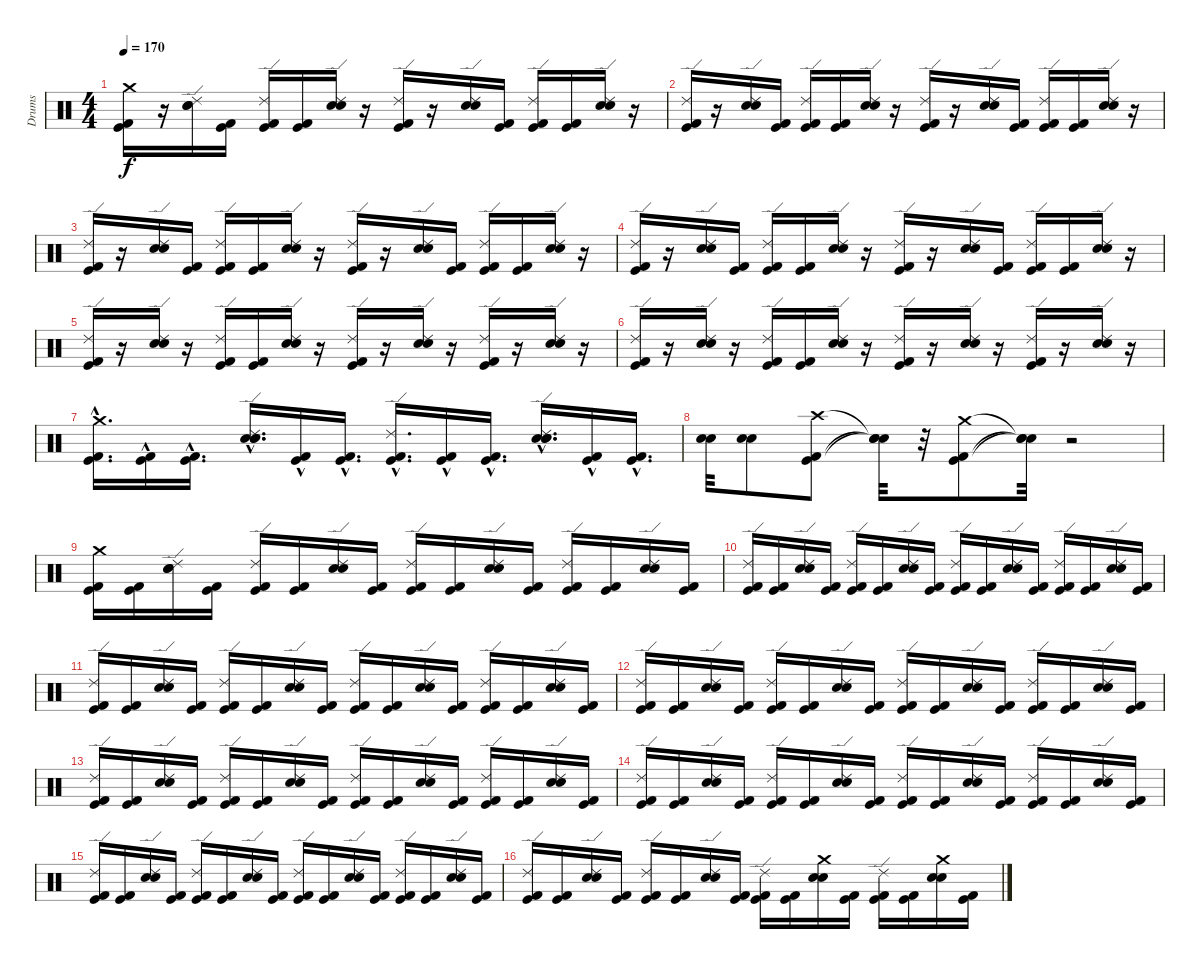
\track ("Drums" "Drums") {instrument percussion}
\staff {score}
\articulation defaults
\ts (4 4)
\tempo 170
\clef neutral
\ks c
("Crash medium (hit)" "Kick (hit) 2" "Kick (hit)").16{dy f} r.16 ("Ride (edge) 2" "Electric Snare (hit)" "Snare (hit) 2").16 ("Kick (hit) 2" "Kick (hit)").16 ("Ride (edge) 2" "Kick (hit) 2" "Kick (hit)").16 ("Kick (hit) 2" "Kick (hit)").16 ("Ride (edge) 2" "Electric Snare (hit)" "Snare (hit) 2").16 r.16 ("Ride (edge) 2" "Kick (hit) 2" "Kick (hit)").16 r.16 ("Ride (edge) 2" "Electric Snare (hit)" "Snare (hit) 2").16 ("Kick (hit) 2" "Kick (hit)").16 ("Ride (edge) 2" "Kick (hit) 2" "Kick (hit)").16 ("Kick (hit) 2" "Kick (hit)").16 ("Ride (edge) 2" "Electric Snare (hit)" "Snare (hit) 2").16 r.16 |
("Ride (edge) 2" "Kick (hit) 2" "Kick (hit)").16 r.16 ("Ride (edge) 2" "Electric Snare (hit)" "Snare (hit) 2").16 ("Kick (hit) 2" "Kick (hit)").16 ("Ride (edge) 2" "Kick (hit) 2" "Kick (hit)").16 ("Kick (hit) 2" "Kick (hit)").16 ("Ride (edge) 2" "Electric Snare (hit)" "Snare (hit) 2").16 r.16 ("Ride (edge) 2" "Kick (hit) 2" "Kick (hit)").16 r.16 ("Ride (edge) 2" "Electric Snare (hit)" "Snare (hit) 2").16 ("Kick (hit) 2" "Kick (hit)").16 ("Ride (edge) 2" "Kick (hit) 2" "Kick (hit)").16 ("Kick (hit) 2" "Kick (hit)").16 ("Ride (edge) 2" "Electric Snare (hit)" "Snare (hit) 2").16 r.16 |
("Ride (edge) 2" "Kick (hit) 2" "Kick (hit)").16 r.16 ("Ride (edge) 2" "Electric Snare (hit)" "Snare (hit) 2").16 ("Kick (hit) 2" "Kick (hit)").16 ("Ride (edge) 2" "Kick (hit) 2" "Kick (hit)").16 ("Kick (hit) 2" "Kick (hit)").16 ("Ride (edge) 2" "Electric Snare (hit)" "Snare (hit) 2").16 r.16 ("Ride (edge) 2" "Kick (hit) 2" "Kick (hit)").16 r.16 ("Ride (edge) 2" "Electric Snare (hit)" "Snare (hit) 2").16 ("Kick (hit) 2" "Kick (hit)").16 ("Ride (edge) 2" "Kick (hit) 2" "Kick (hit)").16 ("Kick (hit) 2" "Kick (hit)").16 ("Ride (edge) 2" "Electric Snare (hit)" "Snare (hit) 2").16 r.16 |
("Ride (edge) 2" "Kick (hit) 2" "Kick (hit)").16 r.16 ("Ride (edge) 2" "Electric Snare (hit)" "Snare (hit) 2").16 ("Kick (hit) 2" "Kick (hit)").16 ("Ride (edge) 2" "Kick (hit) 2" "Kick (hit)").16 ("Kick (hit) 2" "Kick (hit)").16 ("Ride (edge) 2" "Electric Snare (hit)" "Snare (hit) 2").16 r.16 ("Ride (edge) 2" "Kick (hit) 2" "Kick (hit)").16 r.16 ("Ride (edge) 2" "Electric Snare (hit)" "Snare (hit) 2").16 ("Kick (hit) 2" "Kick (hit)").16 ("Ride (edge) 2" "Kick (hit) 2" "Kick (hit)").16 ("Kick (hit) 2" "Kick (hit)").16 ("Ride (edge) 2" "Electric Snare (hit)" "Snare (hit) 2").16 r.16 |
("Kick (hit) 2" "Ride (edge) 2" "Kick (hit)").16 r.16 ("Electric Snare (hit)" "Snare (hit) 2" "Ride (edge) 2").16 r.16 ("Kick (hit) 2" "Kick (hit)" "Ride (edge) 2").16 ("Kick (hit) 2" "Kick (hit)").16 ("Electric Snare (hit)" "Snare (hit) 2" "Ride (edge) 2").16 r.16 ("Kick (hit) 2" "Kick (hit)" "Ride (edge) 2").16 r.16 ("Electric Snare (hit)" "Snare (hit) 2" "Ride (edge) 2").16 r.16 ("Kick (hit) 2" "Kick (hit)" "Ride (edge) 2").16 r.16 ("Electric Snare (hit)" "Snare (hit) 2" "Ride (edge) 2").16 r.16 |
("Kick (hit) 2" "Ride (edge) 2" "Kick (hit)").16 r.16 ("Electric Snare (hit)" "Snare (hit) 2" "Ride (edge) 2").16 r.16 ("Kick (hit) 2" "Kick (hit)" "Ride (edge) 2").16 ("Kick (hit) 2" "Kick (hit)").16 ("Electric Snare (hit)" "Snare (hit) 2" "Ride (edge) 2").16 r.16 ("Kick (hit) 2" "Kick (hit)" "Ride (edge) 2").16 r.16 ("Electric Snare (hit)" "Snare (hit) 2" "Ride (edge) 2").16 r.16 ("Kick (hit) 2" "Kick (hit)" "Ride (edge) 2").16 r.16 ("Electric Snare (hit)" "Snare (hit) 2" "Ride (edge) 2").16 r.16 |
("Crash medium (hit)"{hac} "Kick (hit) 2"{hac} "Kick (hit)"{hac}).16{d} ("Kick (hit) 2"{hac} "Kick (hit)"{hac}).16 ("Kick (hit) 2"{hac} "Kick (hit)"{hac}).16{d} ("Electric Snare (hit)"{hac} "Snare (hit) 2"{hac} "Ride (edge) 2"{hac} "Snare (hit)"{hac}).16{d} ("Kick (hit) 2"{hac} "Kick (hit)"{hac}).16 ("Kick (hit) 2"{hac} "Kick (hit)"{hac}).16{d} ("Ride (edge) 2"{hac} "Kick (hit) 2"{hac} "Kick (hit)"{hac}).16{d} ("Kick (hit) 2"{hac} "Kick (hit)"{hac}).16 ("Kick (hit) 2"{hac} "Kick (hit)"{hac}).16{d} ("Electric Snare (hit)"{hac} "Snare (hit) 2"{hac} "Ride (edge) 2"{hac} "Snare (hit)"{hac}).16{d} ("Kick (hit) 2"{hac} "Kick (hit)"{hac}).16 ("Kick (hit) 2"{hac} "Kick (hit)"{hac}).16{d} |
("Electric Snare (hit)" "Snare (hit) 2").32 ("Snare (hit) 2" "Electric Snare (hit)").8 ("Crash high (hit)" "Kick (hit) 2" "Kick (hit)").8 ("Snare (hit)"{t} "Snare (hit)"{t} "Snare (hit)"{t}).32 r.32 ("Crash medium (hit)" "Kick (hit) 2" "Kick (hit)").8 ("Snare (hit)"{t} "Snare (hit)"{t} "Snare (hit)"{t}).32 r.2 |
("Crash medium (hit)" "Kick (hit) 2" "Kick (hit)").16 ("Kick (hit) 2" "Kick (hit)").16 ("Electric Snare (hit)" "Snare (hit) 2" "Ride (edge) 2").16 ("Kick (hit) 2" "Kick (hit)").16 ("Ride (edge) 2" "Kick (hit) 2" "Kick (hit)").16 ("Kick (hit) 2" "Kick (hit)").16 ("Electric Snare (hit)" "Snare (hit) 2" "Ride (edge) 2").16 ("Kick (hit) 2" "Kick (hit)").16 ("Ride (edge) 2" "Kick (hit) 2" "Kick (hit)").16 ("Kick (hit) 2" "Kick (hit)").16 ("Electric Snare (hit)" "Snare (hit) 2" "Ride (edge) 2").16 ("Kick (hit) 2" "Kick (hit)").16 ("Ride (edge) 2" "Kick (hit) 2" "Kick (hit)").16 ("Kick (hit) 2" "Kick (hit)").16 ("Electric Snare (hit)" "Snare (hit) 2" "Ride (edge) 2").16 ("Kick (hit) 2" "Kick (hit)").16 |
("Ride (edge) 2" "Kick (hit) 2" "Kick (hit)").16 ("Kick (hit) 2" "Kick (hit)").16 ("Electric Snare (hit)" "Snare (hit) 2" "Ride (edge) 2").16 ("Kick (hit) 2" "Kick (hit)").16 ("Ride (edge) 2" "Kick (hit) 2" "Kick (hit)").16 ("Kick (hit) 2" "Kick (hit)").16 ("Electric Snare (hit)" "Snare (hit) 2" "Ride (edge) 2").16 ("Kick (hit) 2" "Kick (hit)").16 ("Ride (edge) 2" "Kick (hit) 2" "Kick (hit)").16 ("Kick (hit) 2" "Kick (hit)").16 ("Electric Snare (hit)" "Snare (hit) 2" "Ride (edge) 2").16 ("Kick (hit) 2" "Kick (hit)").16 ("Ride (edge) 2" "Kick (hit) 2" "Kick (hit)").16 ("Kick (hit) 2" "Kick (hit)").16 ("Electric Snare (hit)" "Snare (hit) 2" "Ride (edge) 2").16 ("Kick (hit) 2" "Kick (hit)").16 |
("Ride (edge) 2" "Kick (hit) 2" "Kick (hit)").16 ("Kick (hit) 2" "Kick (hit)").16 ("Electric Snare (hit)" "Snare (hit) 2" "Ride (edge) 2").16 ("Kick (hit) 2" "Kick (hit)").16 ("Ride (edge) 2" "Kick (hit) 2" "Kick (hit)").16 ("Kick (hit) 2" "Kick (hit)").16 ("Electric Snare (hit)" "Snare (hit) 2" "Ride (edge) 2").16 ("Kick (hit) 2" "Kick (hit)").16 ("Ride (edge) 2" "Kick (hit) 2" "Kick (hit)").16 ("Kick (hit) 2" "Kick (hit)").16 ("Electric Snare (hit)" "Snare (hit) 2" "Ride (edge) 2").16 ("Kick (hit) 2" "Kick (hit)").16 ("Ride (edge) 2" "Kick (hit) 2" "Kick (hit)").16 ("Kick (hit) 2" "Kick (hit)").16 ("Electric Snare (hit)" "Snare (hit) 2" "Ride (edge) 2").16 ("Kick (hit) 2" "Kick (hit)").16 |
("Ride (edge) 2" "Kick (hit) 2" "Kick (hit)").16 ("Kick (hit) 2" "Kick (hit)").16 ("Electric Snare (hit)" "Snare (hit) 2" "Ride (edge) 2").16 ("Kick (hit) 2" "Kick (hit)").16 ("Ride (edge) 2" "Kick (hit) 2" "Kick (hit)").16 ("Kick (hit) 2" "Kick (hit)").16 ("Electric Snare (hit)" "Snare (hit) 2" "Ride (edge) 2").16 ("Kick (hit) 2" "Kick (hit)").16 ("Ride (edge) 2" "Kick (hit) 2" "Kick (hit)").16 ("Kick (hit) 2" "Kick (hit)").16 ("Electric Snare (hit)" "Snare (hit) 2" "Ride (edge) 2").16 ("Kick (hit) 2" "Kick (hit)").16 ("Ride (edge) 2" "Kick (hit) 2" "Kick (hit)").16 ("Kick (hit) 2" "Kick (hit)").16 ("Electric Snare (hit)" "Snare (hit) 2" "Ride (edge) 2").16 ("Kick (hit) 2" "Kick (hit)").16 |
("Ride (edge) 2" "Kick (hit) 2" "Kick (hit)").16 ("Kick (hit) 2" "Kick (hit)").16 ("Electric Snare (hit)" "Snare (hit) 2" "Ride (edge) 2").16 ("Kick (hit) 2" "Kick (hit)").16 ("Ride (edge) 2" "Kick (hit) 2" "Kick (hit)").16 ("Kick (hit) 2" "Kick (hit)").16 ("Electric Snare (hit)" "Snare (hit) 2" "Ride (edge) 2").16 ("Kick (hit) 2" "Kick (hit)").16 ("Ride (edge) 2" "Kick (hit) 2" "Kick (hit)").16 ("Kick (hit) 2" "Kick (hit)").16 ("Electric Snare (hit)" "Snare (hit) 2" "Ride (edge) 2").16 ("Kick (hit) 2" "Kick (hit)").16 ("Ride (edge) 2" "Kick (hit) 2" "Kick (hit)").16 ("Kick (hit) 2" "Kick (hit)").16 ("Electric Snare (hit)" "Snare (hit) 2" "Ride (edge) 2").16 ("Kick (hit) 2" "Kick (hit)").16 |
("Ride (edge) 2" "Kick (hit) 2" "Kick (hit)").16 ("Kick (hit) 2" "Kick (hit)").16 ("Electric Snare (hit)" "Snare (hit) 2" "Ride (edge) 2").16 ("Kick (hit) 2" "Kick (hit)").16 ("Ride (edge) 2" "Kick (hit) 2" "Kick (hit)").16 ("Kick (hit) 2" "Kick (hit)").16 ("Electric Snare (hit)" "Snare (hit) 2" "Ride (edge) 2").16 ("Kick (hit) 2" "Kick (hit)").16 ("Ride (edge) 2" "Kick (hit) 2" "Kick (hit)").16 ("Kick (hit) 2" "Kick (hit)").16 ("Electric Snare (hit)" "Snare (hit) 2" "Ride (edge) 2").16 ("Kick (hit) 2" "Kick (hit)").16 ("Ride (edge) 2" "Kick (hit) 2" "Kick (hit)").16 ("Kick (hit) 2" "Kick (hit)").16 ("Electric Snare (hit)" "Snare (hit) 2" "Ride (edge) 2").16 ("Kick (hit) 2" "Kick (hit)").16 |
("Ride (edge) 2" "Kick (hit) 2" "Kick (hit)").16 ("Kick (hit) 2" "Kick (hit)").16 ("Electric Snare (hit)" "Snare (hit) 2" "Ride (edge) 2").16 ("Kick (hit) 2" "Kick (hit)").16 ("Ride (edge) 2" "Kick (hit) 2" "Kick (hit)").16 ("Kick (hit) 2" "Kick (hit)").16 ("Electric Snare (hit)" "Snare (hit) 2" "Ride (edge) 2").16 ("Kick (hit) 2" "Kick (hit)").16 ("Ride (edge) 2" "Kick (hit) 2" "Kick (hit)").16 ("Kick (hit) 2" "Kick (hit)").16 ("Electric Snare (hit)" "Snare (hit) 2" "Ride (edge) 2").16 ("Kick (hit) 2" "Kick (hit)").16 ("Ride (edge) 2" "Kick (hit) 2" "Kick (hit)").16 ("Kick (hit) 2" "Kick (hit)").16 ("Electric Snare (hit)" "Snare (hit) 2" "Ride (edge) 2").16 ("Kick (hit) 2" "Kick (hit)").16 |
("Ride (edge) 2" "Kick (hit) 2" "Kick (hit)").16 ("Kick (hit) 2" "Kick (hit)").16 ("Electric Snare (hit)" "Snare (hit) 2" "Ride (edge) 2").16 ("Kick (hit) 2" "Kick (hit)").16 ("Ride (edge) 2" "Kick (hit) 2" "Kick (hit)").16 ("Kick (hit) 2" "Kick (hit)").16 ("Electric Snare (hit)" "Snare (hit) 2" "Ride (edge) 2").16 ("Kick (hit) 2" "Kick (hit)").16 ("Ride (edge) 2" "Kick (hit) 2" "Kick (hit)").16 ("Kick (hit) 2" "Kick (hit)").16 ("Crash medium (hit)" "Electric Snare (hit)" "Snare (hit) 2").16 ("Kick (hit) 2" "Kick (hit)").16 ("Ride (edge) 2" "Kick (hit) 2" "Kick (hit)").16 ("Kick (hit) 2" "Kick (hit)").16 ("Crash medium (hit)" "Electric Snare (hit)" "Snare (hit) 2").16 ("Kick (hit) 2" "Kick (hit)").16
